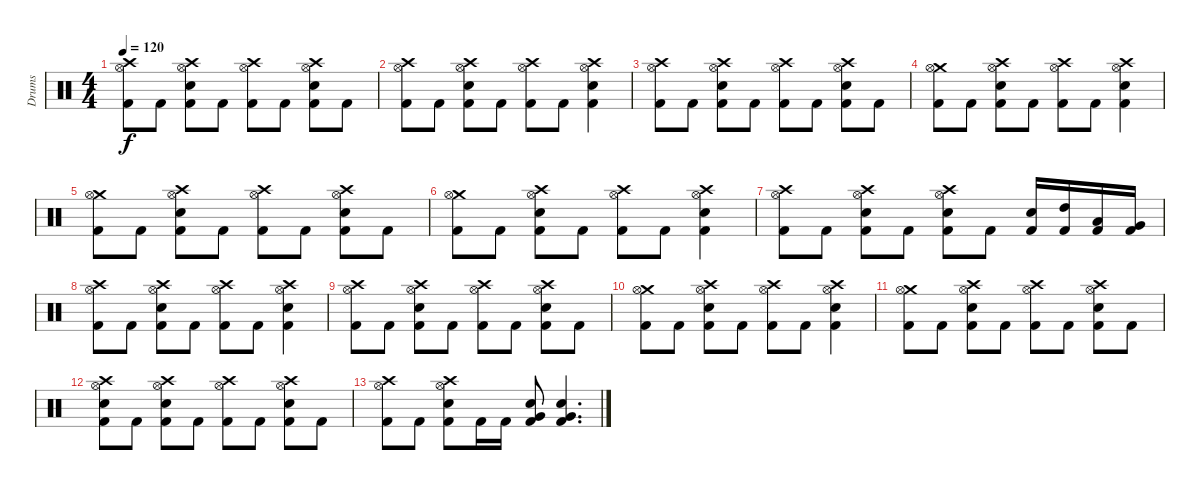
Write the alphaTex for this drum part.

\track ("Drums" "Drums") {instrument percussion}
\staff {score}
\articulation defaults
\ts (4 4)
\tempo 120
\clef neutral
\ks c
("Crash high (hit)" "Hi-Hat (open)" "Kick (hit) 2").8{dy f} "Kick (hit) 2".8 ("Crash high (hit)" "Hi-Hat (open)" "Electric Snare (hit)" "Kick (hit) 2").8 "Kick (hit) 2".8 ("Crash high (hit)" "Hi-Hat (open)" "Kick (hit) 2").8 "Kick (hit) 2".8 ("Crash high (hit)" "Hi-Hat (open)" "Electric Snare (hit)" "Kick (hit) 2").8 "Kick (hit) 2".8 |
("Crash high (hit)" "Hi-Hat (open)" "Kick (hit) 2").8 "Kick (hit) 2".8 ("Crash high (hit)" "Hi-Hat (open)" "Electric Snare (hit)" "Kick (hit) 2").8 "Kick (hit) 2".8 ("Crash high (hit)" "Hi-Hat (open)" "Kick (hit) 2").8 "Kick (hit) 2".8 ("Crash high (hit)" "Hi-Hat (open)" "Electric Snare (hit)" "Kick (hit) 2").4 |
("Crash high (hit)" "Hi-Hat (open)" "Kick (hit) 2").8 "Kick (hit) 2".8 ("Crash high (hit)" "Hi-Hat (open)" "Electric Snare (hit)" "Kick (hit) 2").8 "Kick (hit) 2".8 ("Crash high (hit)" "Hi-Hat (open)" "Kick (hit) 2").8 "Kick (hit) 2".8 ("Crash high (hit)" "Hi-Hat (open)" "Electric Snare (hit)" "Kick (hit) 2").8 "Kick (hit) 2".8 |
("Crash medium (hit)" "Hi-Hat (open)" "Kick (hit) 2").8 "Kick (hit) 2".8 ("Crash high (hit)" "Hi-Hat (open)" "Electric Snare (hit)" "Kick (hit) 2").8 "Kick (hit) 2".8 ("Crash high (hit)" "Hi-Hat (open)" "Kick (hit) 2").8 "Kick (hit) 2".8 ("Crash high (hit)" "Hi-Hat (open)" "Electric Snare (hit)" "Kick (hit) 2").4 |
("Crash medium (hit)" "Hi-Hat (open)" "Kick (hit) 2").8 "Kick (hit) 2".8 ("Crash high (hit)" "Hi-Hat (open)" "Electric Snare (hit)" "Kick (hit) 2").8 "Kick (hit) 2".8 ("Crash high (hit)" "Hi-Hat (open)" "Kick (hit) 2").8 "Kick (hit) 2".8 ("Crash high (hit)" "Hi-Hat (open)" "Electric Snare (hit)" "Kick (hit) 2").8 "Kick (hit) 2".8 |
("Crash medium (hit)" "Hi-Hat (open)" "Kick (hit) 2").8 "Kick (hit) 2".8 ("Crash high (hit)" "Hi-Hat (open)" "Electric Snare (hit)" "Kick (hit) 2").8 "Kick (hit) 2".8 ("Crash high (hit)" "Hi-Hat (open)" "Kick (hit) 2").8 "Kick (hit) 2".8 ("Crash high (hit)" "Hi-Hat (open)" "Electric Snare (hit)" "Kick (hit) 2").4 |
("Crash high (hit)" "Hi-Hat (open)" "Kick (hit) 2").8 "Kick (hit) 2".8 ("Crash high (hit)" "Hi-Hat (open)" "Electric Snare (hit)" "Kick (hit) 2").8 "Kick (hit) 2".8 ("Crash high (hit)" "Hi-Hat (open)" "Electric Snare (hit)" "Kick (hit) 2").8 "Kick (hit) 2".8 ("Electric Snare (hit)" "Kick (hit) 2").16 ("High Tom (hit)" "Kick (hit) 2").16 ("Low Tom (hit)" "Kick (hit) 2").16 ("Very Low Tom (hit)" "Kick (hit) 2").16 |
("Crash high (hit)" "Hi-Hat (open)" "Kick (hit) 2").8 "Kick (hit) 2".8 ("Crash high (hit)" "Hi-Hat (open)" "Electric Snare (hit)" "Kick (hit) 2").8 "Kick (hit) 2".8 ("Crash high (hit)" "Hi-Hat (open)" "Kick (hit) 2").8 "Kick (hit) 2".8 ("Crash high (hit)" "Hi-Hat (open)" "Electric Snare (hit)" "Kick (hit) 2").4 |
("Crash high (hit)" "Hi-Hat (open)" "Kick (hit) 2").8 "Kick (hit) 2".8 ("Crash high (hit)" "Hi-Hat (open)" "Electric Snare (hit)" "Kick (hit) 2").8 "Kick (hit) 2".8 ("Crash high (hit)" "Hi-Hat (open)" "Kick (hit) 2").8 "Kick (hit) 2".8 ("Crash high (hit)" "Hi-Hat (open)" "Electric Snare (hit)" "Kick (hit) 2").8 "Kick (hit) 2".8 |
("Crash medium (hit)" "Hi-Hat (open)" "Kick (hit) 2").8 "Kick (hit) 2".8 ("Crash high (hit)" "Hi-Hat (open)" "Electric Snare (hit)" "Kick (hit) 2").8 "Kick (hit) 2".8 ("Crash high (hit)" "Hi-Hat (open)" "Kick (hit) 2").8 "Kick (hit) 2".8 ("Crash high (hit)" "Hi-Hat (open)" "Electric Snare (hit)" "Kick (hit) 2").4 |
("Crash medium (hit)" "Hi-Hat (open)" "Kick (hit) 2").8 "Kick (hit) 2".8 ("Crash high (hit)" "Hi-Hat (open)" "Electric Snare (hit)" "Kick (hit) 2").8 "Kick (hit) 2".8 ("Crash high (hit)" "Hi-Hat (open)" "Kick (hit) 2").8 "Kick (hit) 2".8 ("Crash high (hit)" "Hi-Hat (open)" "Electric Snare (hit)" "Kick (hit) 2").8 "Kick (hit) 2".8 |
("Crash high (hit)" "Hi-Hat (open)" "Electric Snare (hit)" "Kick (hit) 2").8 "Kick (hit) 2".8 ("Crash high (hit)" "Hi-Hat (open)" "Electric Snare (hit)" "Kick (hit) 2").8 "Kick (hit) 2".8 ("Crash high (hit)" "Hi-Hat (open)" "Kick (hit) 2").8 "Kick (hit) 2".8 ("Crash high (hit)" "Hi-Hat (open)" "Electric Snare (hit)" "Kick (hit) 2").8 "Kick (hit) 2".8 |
("Crash high (hit)" "Hi-Hat (open)" "Kick (hit) 2").8 "Kick (hit) 2".8 ("Crash high (hit)" "Hi-Hat (open)" "Electric Snare (hit)" "Kick (hit) 2").8 "Kick (hit) 2".16 "Kick (hit) 2".16 ("Very Low Tom (hit)" "Electric Snare (hit)" "Kick (hit) 2").8 ("Very Low Tom (hit)" "Electric Snare (hit)" "Kick (hit) 2").4{d}
